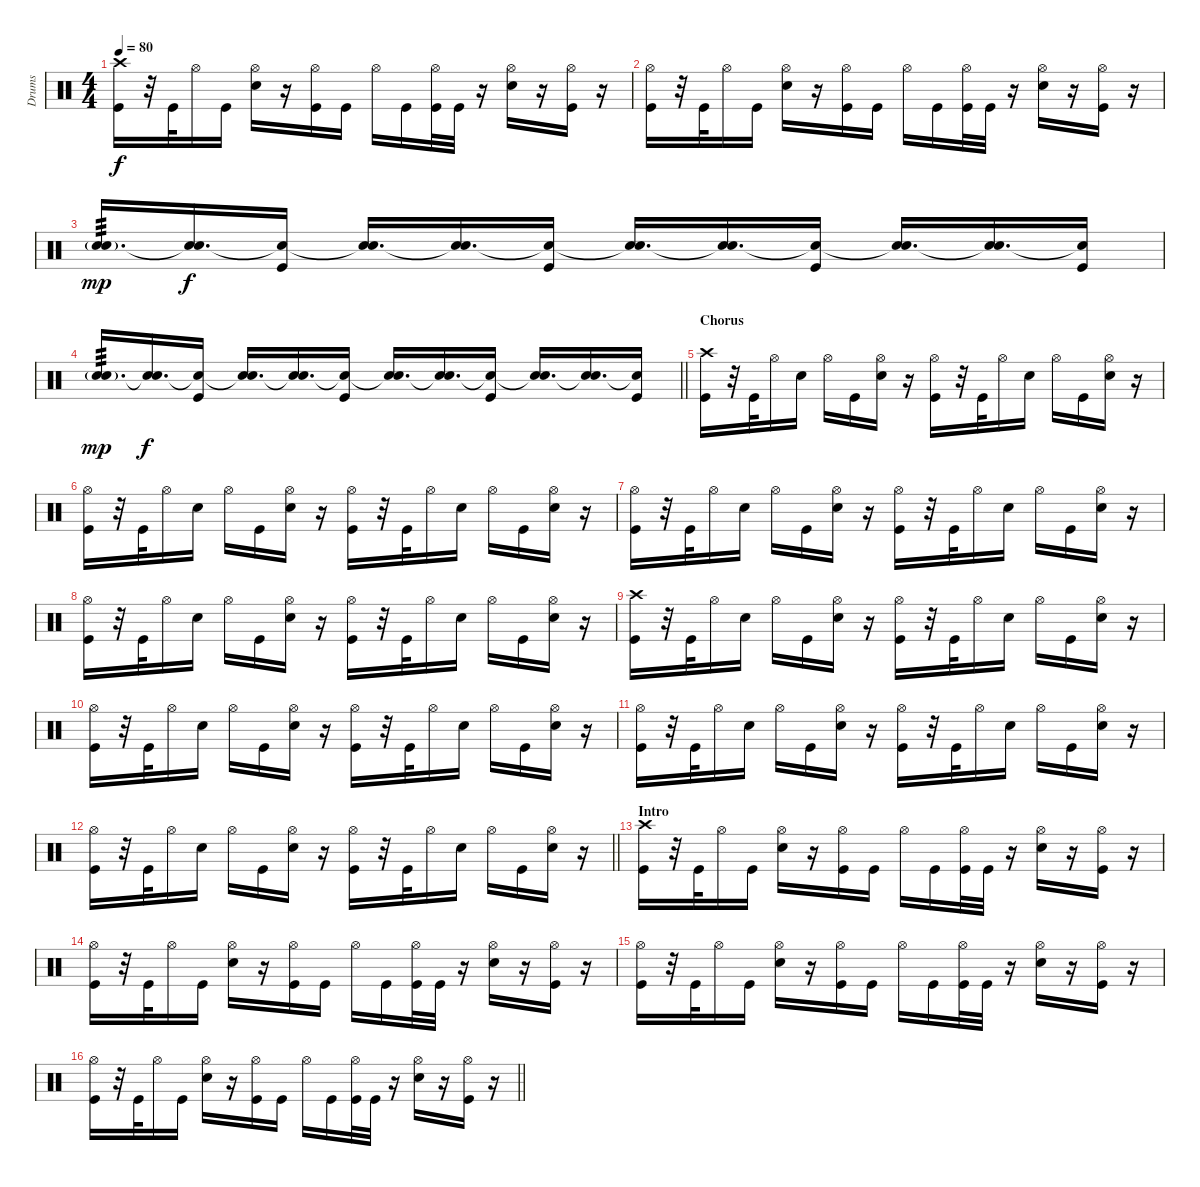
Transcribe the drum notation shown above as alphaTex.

\track ("Drums" "Drums") {instrument percussion}
\staff {score}
\articulation defaults
\ts (4 4)
\tempo 80
\clef neutral
\ks c
("Crash high (hit)" "Kick (hit)").16{dy f} r.32 "Kick (hit)".32 "Hi-Hat (open)".16 "Kick (hit)".16 ("Hi-Hat (open)" "Electric Snare (hit)").16 r.16 ("Hi-Hat (open)" "Kick (hit)").16 "Kick (hit)".16 "Hi-Hat (open)".16 "Kick (hit)".16 ("Hi-Hat (open)" "Kick (hit)").32 "Kick (hit)".32 r.16 ("Hi-Hat (open)" "Electric Snare (hit)").16 r.16 ("Hi-Hat (open)" "Kick (hit)").16 r.16 |
("Hi-Hat (open)" "Kick (hit)").16 r.32 "Kick (hit)".32 "Hi-Hat (open)".16 "Kick (hit)".16 ("Hi-Hat (open)" "Electric Snare (hit)").16 r.16 ("Hi-Hat (open)" "Kick (hit)").16 "Kick (hit)".16 "Hi-Hat (open)".16 "Kick (hit)".16 ("Hi-Hat (open)" "Kick (hit)").32 "Kick (hit)".32 r.16 ("Hi-Hat (open)" "Electric Snare (hit)").16 r.16 ("Hi-Hat (open)" "Kick (hit)").16 r.16 |
("Electric Snare (hit)"{g} "Electric Snare (hit)").16{d tp 3 dy mp} ("Electric Snare (hit)"{t} "Electric Snare (hit)").16{d dy f} ("Electric Snare (hit)"{t} "Kick (hit)").16 ("Electric Snare (hit)"{t} "Electric Snare (hit)").16{d} ("Electric Snare (hit)"{t} "Electric Snare (hit)").16{d} ("Electric Snare (hit)"{t} "Kick (hit)").16 ("Electric Snare (hit)"{t} "Electric Snare (hit)").16{d} ("Electric Snare (hit)"{t} "Electric Snare (hit)").16{d} ("Electric Snare (hit)"{t} "Kick (hit)").16 ("Electric Snare (hit)"{t} "Electric Snare (hit)").16{d} ("Snare (hit)"{t} "Electric Snare (hit)").16{d} ("Snare (hit)"{t} "Kick (hit)").16 |
\barLineRight lightlight
("Electric Snare (hit)"{g} "Electric Snare (hit)").16{d tp 3 dy mp} ("Electric Snare (hit)"{t} "Electric Snare (hit)").16{d dy f} ("Electric Snare (hit)"{t} "Kick (hit)").16 ("Electric Snare (hit)"{t} "Electric Snare (hit)").16{d} ("Electric Snare (hit)"{t} "Electric Snare (hit)").16{d} ("Electric Snare (hit)"{t} "Kick (hit)").16 ("Electric Snare (hit)"{t} "Electric Snare (hit)").16{d} ("Electric Snare (hit)"{t} "Electric Snare (hit)").16{d} ("Electric Snare (hit)"{t} "Kick (hit)").16 ("Electric Snare (hit)"{t} "Electric Snare (hit)").16{d} ("Snare (hit)"{t} "Electric Snare (hit)").16{d} ("Snare (hit)"{t} "Kick (hit)").16 |
\section ("" "Chorus")
("Crash high (hit)" "Kick (hit)").16 r.32 "Kick (hit)".32 "Hi-Hat (open)".16 "Electric Snare (hit)".16 "Hi-Hat (open)".16 "Kick (hit)".16 ("Hi-Hat (open)" "Electric Snare (hit)").16 r.16 ("Hi-Hat (open)" "Kick (hit)").16 r.32 "Kick (hit)".32 "Hi-Hat (open)".16 "Electric Snare (hit)".16 "Hi-Hat (open)".16 "Kick (hit)".16 ("Hi-Hat (open)" "Electric Snare (hit)").16 r.16 |
("Hi-Hat (open)" "Kick (hit)").16 r.32 "Kick (hit)".32 "Hi-Hat (open)".16 "Electric Snare (hit)".16 "Hi-Hat (open)".16 "Kick (hit)".16 ("Hi-Hat (open)" "Electric Snare (hit)").16 r.16 ("Hi-Hat (open)" "Kick (hit)").16 r.32 "Kick (hit)".32 "Hi-Hat (open)".16 "Electric Snare (hit)".16 "Hi-Hat (open)".16 "Kick (hit)".16 ("Hi-Hat (open)" "Electric Snare (hit)").16 r.16 |
("Hi-Hat (open)" "Kick (hit)").16 r.32 "Kick (hit)".32 "Hi-Hat (open)".16 "Electric Snare (hit)".16 "Hi-Hat (open)".16 "Kick (hit)".16 ("Hi-Hat (open)" "Electric Snare (hit)").16 r.16 ("Hi-Hat (open)" "Kick (hit)").16 r.32 "Kick (hit)".32 "Hi-Hat (open)".16 "Electric Snare (hit)".16 "Hi-Hat (open)".16 "Kick (hit)".16 ("Hi-Hat (open)" "Electric Snare (hit)").16 r.16 |
("Hi-Hat (open)" "Kick (hit)").16 r.32 "Kick (hit)".32 "Hi-Hat (open)".16 "Electric Snare (hit)".16 "Hi-Hat (open)".16 "Kick (hit)".16 ("Hi-Hat (open)" "Electric Snare (hit)").16 r.16 ("Hi-Hat (open)" "Kick (hit)").16 r.32 "Kick (hit)".32 "Hi-Hat (open)".16 "Electric Snare (hit)".16 "Hi-Hat (open)".16 "Kick (hit)".16 ("Hi-Hat (open)" "Electric Snare (hit)").16 r.16 |
("Crash high (hit)" "Kick (hit)").16 r.32 "Kick (hit)".32 "Hi-Hat (open)".16 "Electric Snare (hit)".16 "Hi-Hat (open)".16 "Kick (hit)".16 ("Hi-Hat (open)" "Electric Snare (hit)").16 r.16 ("Hi-Hat (open)" "Kick (hit)").16 r.32 "Kick (hit)".32 "Hi-Hat (open)".16 "Electric Snare (hit)".16 "Hi-Hat (open)".16 "Kick (hit)".16 ("Hi-Hat (open)" "Electric Snare (hit)").16 r.16 |
("Hi-Hat (open)" "Kick (hit)").16 r.32 "Kick (hit)".32 "Hi-Hat (open)".16 "Electric Snare (hit)".16 "Hi-Hat (open)".16 "Kick (hit)".16 ("Hi-Hat (open)" "Electric Snare (hit)").16 r.16 ("Hi-Hat (open)" "Kick (hit)").16 r.32 "Kick (hit)".32 "Hi-Hat (open)".16 "Electric Snare (hit)".16 "Hi-Hat (open)".16 "Kick (hit)".16 ("Hi-Hat (open)" "Electric Snare (hit)").16 r.16 |
("Hi-Hat (open)" "Kick (hit)").16 r.32 "Kick (hit)".32 "Hi-Hat (open)".16 "Electric Snare (hit)".16 "Hi-Hat (open)".16 "Kick (hit)".16 ("Hi-Hat (open)" "Electric Snare (hit)").16 r.16 ("Hi-Hat (open)" "Kick (hit)").16 r.32 "Kick (hit)".32 "Hi-Hat (open)".16 "Electric Snare (hit)".16 "Hi-Hat (open)".16 "Kick (hit)".16 ("Hi-Hat (open)" "Electric Snare (hit)").16 r.16 |
\barLineRight lightlight
("Hi-Hat (open)" "Kick (hit)").16 r.32 "Kick (hit)".32 "Hi-Hat (open)".16 "Electric Snare (hit)".16 "Hi-Hat (open)".16 "Kick (hit)".16 ("Hi-Hat (open)" "Electric Snare (hit)").16 r.16 ("Hi-Hat (open)" "Kick (hit)").16 r.32 "Kick (hit)".32 "Hi-Hat (open)".16 "Electric Snare (hit)".16 "Hi-Hat (open)".16 "Kick (hit)".16 ("Hi-Hat (open)" "Electric Snare (hit)").16 r.16 |
\section ("" "Intro")
("Crash high (hit)" "Kick (hit)").16 r.32 "Kick (hit)".32 "Hi-Hat (open)".16 "Kick (hit)".16 ("Hi-Hat (open)" "Electric Snare (hit)").16 r.16 ("Hi-Hat (open)" "Kick (hit)").16 "Kick (hit)".16 "Hi-Hat (open)".16 "Kick (hit)".16 ("Hi-Hat (open)" "Kick (hit)").32 "Kick (hit)".32 r.16 ("Hi-Hat (open)" "Electric Snare (hit)").16 r.16 ("Hi-Hat (open)" "Kick (hit)").16 r.16 |
("Hi-Hat (open)" "Kick (hit)").16 r.32 "Kick (hit)".32 "Hi-Hat (open)".16 "Kick (hit)".16 ("Hi-Hat (open)" "Electric Snare (hit)").16 r.16 ("Hi-Hat (open)" "Kick (hit)").16 "Kick (hit)".16 "Hi-Hat (open)".16 "Kick (hit)".16 ("Hi-Hat (open)" "Kick (hit)").32 "Kick (hit)".32 r.16 ("Hi-Hat (open)" "Electric Snare (hit)").16 r.16 ("Hi-Hat (open)" "Kick (hit)").16 r.16 |
("Hi-Hat (open)" "Kick (hit)").16 r.32 "Kick (hit)".32 "Hi-Hat (open)".16 "Kick (hit)".16 ("Hi-Hat (open)" "Electric Snare (hit)").16 r.16 ("Hi-Hat (open)" "Kick (hit)").16 "Kick (hit)".16 "Hi-Hat (open)".16 "Kick (hit)".16 ("Hi-Hat (open)" "Kick (hit)").32 "Kick (hit)".32 r.16 ("Hi-Hat (open)" "Electric Snare (hit)").16 r.16 ("Hi-Hat (open)" "Kick (hit)").16 r.16 |
\barLineRight lightlight
("Hi-Hat (open)" "Kick (hit)").16 r.32 "Kick (hit)".32 "Hi-Hat (open)".16 "Kick (hit)".16 ("Hi-Hat (open)" "Electric Snare (hit)").16 r.16 ("Hi-Hat (open)" "Kick (hit)").16 "Kick (hit)".16 "Hi-Hat (open)".16 "Kick (hit)".16 ("Hi-Hat (open)" "Kick (hit)").32 "Kick (hit)".32 r.16 ("Hi-Hat (open)" "Electric Snare (hit)").16 r.16 ("Hi-Hat (open)" "Kick (hit)").16 r.16
